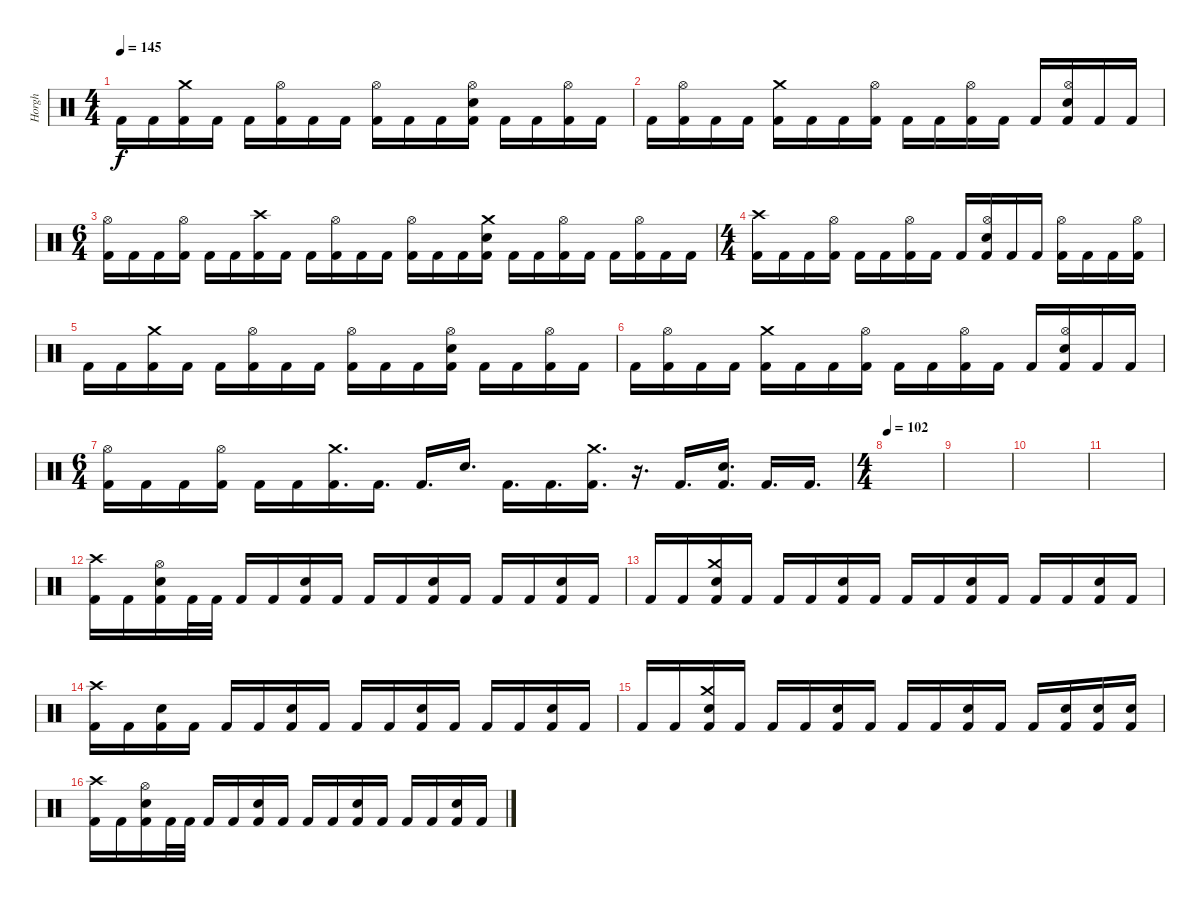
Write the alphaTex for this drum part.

\track ("Horgh" "Horgh") {instrument percussion}
\staff {score}
\articulation defaults
\ts (4 4)
\tempo 145
\clef neutral
\ks c "Kick (hit) 2".16{dy f} "Kick (hit) 2".16
("Crash medium (hit)" "Kick (hit) 2").16 "Kick (hit) 2".16 "Kick (hit) 2".16 ("Hi-Hat (open)" "Kick (hit) 2").16 "Kick (hit) 2".16 "Kick (hit) 2".16 ("Hi-Hat (open)" "Kick (hit) 2").16 "Kick (hit) 2".16 "Kick (hit) 2".16 ("Hi-Hat (open)" "Electric Snare (hit)" "Kick (hit) 2").16 "Kick (hit) 2".16 "Kick (hit) 2".16 ("Hi-Hat (open)" "Kick (hit) 2").16 "Kick (hit) 2".16 |
"Kick (hit) 2".16 ("Hi-Hat (open)" "Kick (hit) 2").16 "Kick (hit) 2".16 "Kick (hit) 2".16 ("Crash medium (hit)" "Kick (hit) 2").16 "Kick (hit) 2".16 "Kick (hit) 2".16 ("Hi-Hat (open)" "Kick (hit) 2").16 "Kick (hit) 2".16 "Kick (hit) 2".16 ("Hi-Hat (open)" "Kick (hit) 2").16 "Kick (hit) 2".16 "Kick (hit) 2".16 ("Hi-Hat (open)" "Electric Snare (hit)" "Kick (hit) 2").16 "Kick (hit) 2".16 "Kick (hit) 2".16 |
\ts (6 4)
("Hi-Hat (open)" "Kick (hit) 2").16 "Kick (hit) 2".16 "Kick (hit) 2".16 ("Hi-Hat (open)" "Kick (hit) 2").16 "Kick (hit) 2".16 "Kick (hit) 2".16 ("Crash high (hit)" "Kick (hit) 2").16 "Kick (hit) 2".16 "Kick (hit) 2".16 ("Hi-Hat (open)" "Kick (hit) 2").16 "Kick (hit) 2".16 "Kick (hit) 2".16 ("Hi-Hat (open)" "Kick (hit) 2").16 "Kick (hit) 2".16 "Kick (hit) 2".16 ("Crash medium (hit)" "Electric Snare (hit)" "Kick (hit) 2").16 "Kick (hit) 2".16 "Kick (hit) 2".16 ("Hi-Hat (open)" "Kick (hit) 2").16 "Kick (hit) 2".16 "Kick (hit) 2".16 ("Hi-Hat (open)" "Kick (hit) 2").16 "Kick (hit) 2".16 "Kick (hit) 2".16 |
\ts (4 4)
("Crash high (hit)" "Kick (hit) 2").16 "Kick (hit) 2".16 "Kick (hit) 2".16 ("Hi-Hat (open)" "Kick (hit) 2").16 "Kick (hit) 2".16 "Kick (hit) 2".16 ("Hi-Hat (open)" "Kick (hit) 2").16 "Kick (hit) 2".16 "Kick (hit) 2".16 ("Hi-Hat (open)" "Electric Snare (hit)" "Kick (hit) 2").16 "Kick (hit) 2".16 "Kick (hit) 2".16 ("Hi-Hat (open)" "Kick (hit) 2").16 "Kick (hit) 2".16 "Kick (hit) 2".16 ("Hi-Hat (open)" "Kick (hit) 2").16 |
"Kick (hit) 2".16 "Kick (hit) 2".16 ("Crash medium (hit)" "Kick (hit) 2").16 "Kick (hit) 2".16 "Kick (hit) 2".16 ("Hi-Hat (open)" "Kick (hit) 2").16 "Kick (hit) 2".16 "Kick (hit) 2".16 ("Hi-Hat (open)" "Kick (hit) 2").16 "Kick (hit) 2".16 "Kick (hit) 2".16 ("Hi-Hat (open)" "Electric Snare (hit)" "Kick (hit) 2").16 "Kick (hit) 2".16 "Kick (hit) 2".16 ("Hi-Hat (open)" "Kick (hit) 2").16 "Kick (hit) 2".16 |
"Kick (hit) 2".16 ("Hi-Hat (open)" "Kick (hit) 2").16 "Kick (hit) 2".16 "Kick (hit) 2".16 ("Crash medium (hit)" "Kick (hit) 2").16 "Kick (hit) 2".16 "Kick (hit) 2".16 ("Hi-Hat (open)" "Kick (hit) 2").16 "Kick (hit) 2".16 "Kick (hit) 2".16 ("Hi-Hat (open)" "Kick (hit) 2").16 "Kick (hit) 2".16 "Kick (hit) 2".16 ("Hi-Hat (open)" "Electric Snare (hit)" "Kick (hit) 2").16 "Kick (hit) 2".16 "Kick (hit) 2".16 |
\ts (6 4)
("Hi-Hat (open)" "Kick (hit) 2").16 "Kick (hit) 2".16 "Kick (hit) 2".16 ("Hi-Hat (open)" "Kick (hit) 2").16 "Kick (hit) 2".16 "Kick (hit) 2".16 ("Crash medium (hit)" "Kick (hit) 2").16{d} "Kick (hit) 2".16{d} "Kick (hit) 2".16{d} "Electric Snare (hit)".16{d} "Kick (hit) 2".16{d} "Kick (hit) 2".16{d} ("Crash medium (hit)" "Kick (hit) 2").16{d} r.16{d} "Kick (hit) 2".16{d} ("Electric Snare (hit)" "Kick (hit) 2").16{d} "Kick (hit) 2".16{d} "Kick (hit) 2".16{d} |
\ts (4 4)
\tempo 102
|
|
|
|
("Crash high (hit)" "Kick (hit) 2").16 "Kick (hit) 2".16 ("Hi-Hat (open)" "Electric Snare (hit)" "Kick (hit) 2").16 "Kick (hit) 2".32 "Kick (hit) 2".32 "Kick (hit) 2".16 "Kick (hit) 2".16 ("Electric Snare (hit)" "Kick (hit) 2").16 "Kick (hit) 2".16 "Kick (hit) 2".16 "Kick (hit) 2".16 ("Electric Snare (hit)" "Kick (hit) 2").16 "Kick (hit) 2".16 "Kick (hit) 2".16 "Kick (hit) 2".16 ("Electric Snare (hit)" "Kick (hit) 2").16 "Kick (hit) 2".16 |
"Kick (hit) 2".16 "Kick (hit) 2".16 ("Crash medium (hit)" "Electric Snare (hit)" "Kick (hit) 2").16 "Kick (hit) 2".16 "Kick (hit) 2".16 "Kick (hit) 2".16 ("Electric Snare (hit)" "Kick (hit) 2").16 "Kick (hit) 2".16 "Kick (hit) 2".16 "Kick (hit) 2".16 ("Electric Snare (hit)" "Kick (hit) 2").16 "Kick (hit) 2".16 "Kick (hit) 2".16 "Kick (hit) 2".16 ("Electric Snare (hit)" "Kick (hit) 2").16 "Kick (hit) 2".16 |
("Crash high (hit)" "Kick (hit) 2").16 "Kick (hit) 2".16 ("Electric Snare (hit)" "Kick (hit) 2").16 "Kick (hit) 2".16 "Kick (hit) 2".16 "Kick (hit) 2".16 ("Electric Snare (hit)" "Kick (hit) 2").16 "Kick (hit) 2".16 "Kick (hit) 2".16 "Kick (hit) 2".16 ("Electric Snare (hit)" "Kick (hit) 2").16 "Kick (hit) 2".16 "Kick (hit) 2".16 "Kick (hit) 2".16 ("Electric Snare (hit)" "Kick (hit) 2").16 "Kick (hit) 2".16 |
"Kick (hit) 2".16 "Kick (hit) 2".16 ("Crash medium (hit)" "Electric Snare (hit)" "Kick (hit) 2").16 "Kick (hit) 2".16 "Kick (hit) 2".16 "Kick (hit) 2".16 ("Electric Snare (hit)" "Kick (hit) 2").16 "Kick (hit) 2".16 "Kick (hit) 2".16 "Kick (hit) 2".16 ("Electric Snare (hit)" "Kick (hit) 2").16 "Kick (hit) 2".16 "Kick (hit) 2".16 ("Electric Snare (hit)" "Kick (hit) 2").16 ("Electric Snare (hit)" "Kick (hit) 2").16 ("Electric Snare (hit)" "Kick (hit) 2").16 |
("Crash high (hit)" "Kick (hit) 2").16 "Kick (hit) 2".16 ("Hi-Hat (open)" "Electric Snare (hit)" "Kick (hit) 2").16 "Kick (hit) 2".32 "Kick (hit) 2".32 "Kick (hit) 2".16 "Kick (hit) 2".16 ("Electric Snare (hit)" "Kick (hit) 2").16 "Kick (hit) 2".16 "Kick (hit) 2".16 "Kick (hit) 2".16 ("Electric Snare (hit)" "Kick (hit) 2").16 "Kick (hit) 2".16 "Kick (hit) 2".16 "Kick (hit) 2".16 ("Electric Snare (hit)" "Kick (hit) 2").16 "Kick (hit) 2".16
